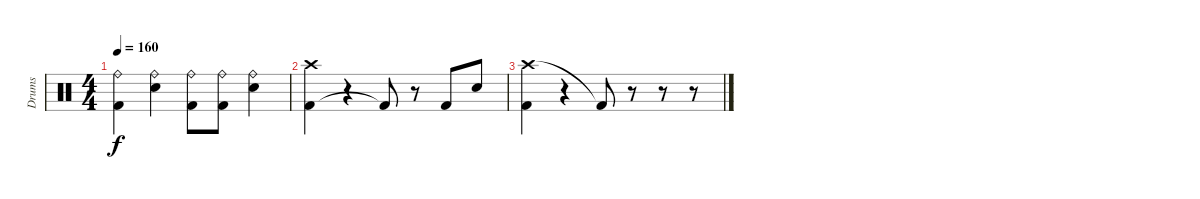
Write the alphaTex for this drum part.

\track ("Drums" "Drums") {instrument percussion}
\staff {score}
\articulation defaults
\ts (4 4)
\tempo 160
\clef neutral
\ks c
("Ride (bell)" "Kick (hit) 2").4{dy f} ("Electric Snare (hit)" "Ride (bell)").4 ("Kick (hit) 2" "Ride (bell)").8 ("Kick (hit) 2" "Ride (bell)").8 ("Electric Snare (hit)" "Ride (bell)").4 |
("Kick (hit) 2" "Crash high (hit)").4 r.4 "Kick (hit) 2"{t}.8 r.8 "Kick (hit) 2".8 "Electric Snare (hit)".8 |
("Crash high (hit)" "Kick (hit) 2").4 r.4 "Kick (hit) 2"{t}.8 r.8 r.8 r.8
